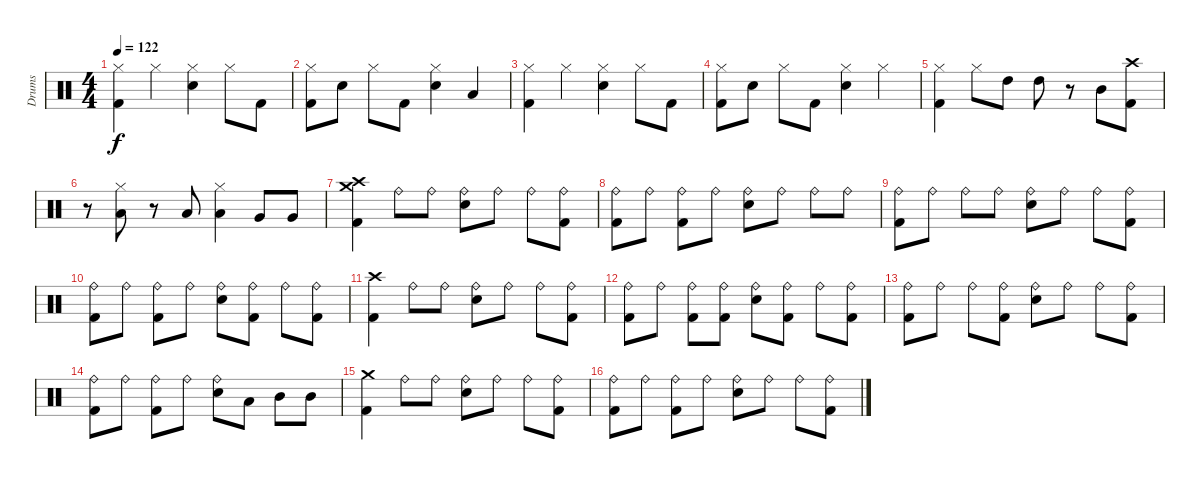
\track ("Drums" "Drums") {instrument percussion}
\staff {score}
\articulation defaults
\ts (4 4)
\tempo 122
\clef neutral
\ks c
("Hi-Hat (closed)" "Kick (hit) 2").4{dy f} "Hi-Hat (closed)".4 ("Hi-Hat (closed)" "Snare (hit) 2").4 "Hi-Hat (closed)".8 "Kick (hit) 2".8 |
("Hi-Hat (closed)" "Kick (hit) 2").8 "Snare (hit) 2".8 "Hi-Hat (closed)".8 "Kick (hit) 2".8 ("Hi-Hat (closed)" "Snare (hit) 2").4 "Low Tom (hit)".4 |
("Hi-Hat (closed)" "Kick (hit) 2").4 "Hi-Hat (closed)".4 ("Hi-Hat (closed)" "Snare (hit) 2").4 "Hi-Hat (closed)".8 "Kick (hit) 2".8 |
("Hi-Hat (closed)" "Kick (hit) 2").8 "Snare (hit) 2".8 "Hi-Hat (closed)".8 "Kick (hit) 2".8 ("Hi-Hat (closed)" "Snare (hit) 2").4 "Hi-Hat (closed)".4 |
("Hi-Hat (closed)" "Kick (hit) 2").4 "Hi-Hat (closed)".8 "High Tom (hit)".8 "High Tom (hit)".8 r.8 "Mid Tom (hit)".8 ("Crash high (hit)" "Kick (hit) 2").8 |
r.8 ("Hi-Hat (closed)" "Low Tom (hit)").8 r.8 "Low Tom (hit)".8 ("Hi-Hat (closed)" "Low Tom (hit)").4 "Very Low Tom (hit)".8 "Very Low Tom (hit)".8 |
("Crash high (hit)" "Crash medium (hit)" "Kick (hit) 2").4 "Ride (bell)".8 "Ride (bell)".8 ("Ride (bell)" "Snare (hit) 2").8 "Ride (bell)".8 "Ride (bell)".8 ("Ride (bell)" "Kick (hit) 2").8 |
("Ride (bell)" "Kick (hit) 2").8 "Ride (bell)".8 ("Ride (bell)" "Kick (hit) 2").8 "Ride (bell)".8 ("Ride (bell)" "Snare (hit) 2").8 "Ride (bell)".8 "Ride (bell)".8 "Ride (bell)".8 |
("Ride (bell)" "Kick (hit) 2").8 "Ride (bell)".8 "Ride (bell)".8 "Ride (bell)".8 ("Ride (bell)" "Snare (hit) 2").8 "Ride (bell)".8 "Ride (bell)".8 ("Ride (bell)" "Kick (hit) 2").8 |
("Ride (bell)" "Kick (hit) 2").8 "Ride (bell)".8 ("Ride (bell)" "Kick (hit) 2").8 "Ride (bell)".8 ("Ride (bell)" "Snare (hit) 2").8 ("Ride (bell)" "Kick (hit) 2").8 "Ride (bell)".8 ("Ride (bell)" "Kick (hit) 2").8 |
("Crash high (hit)" "Kick (hit) 2").4 "Ride (bell)".8 "Ride (bell)".8 ("Ride (bell)" "Snare (hit) 2").8 "Ride (bell)".8 "Ride (bell)".8 ("Ride (bell)" "Kick (hit) 2").8 |
("Ride (bell)" "Kick (hit) 2").8 "Ride (bell)".8 ("Ride (bell)" "Kick (hit) 2").8 ("Ride (bell)" "Kick (hit) 2").8 ("Ride (bell)" "Snare (hit) 2").8 ("Ride (bell)" "Kick (hit) 2").8 "Ride (bell)".8 ("Ride (bell)" "Kick (hit) 2").8 |
("Ride (bell)" "Kick (hit) 2").8 "Ride (bell)".8 "Ride (bell)".8 ("Ride (bell)" "Kick (hit) 2").8 ("Ride (bell)" "Snare (hit) 2").8 "Ride (bell)".8 "Ride (bell)".8 ("Ride (bell)" "Kick (hit) 2").8 |
("Ride (bell)" "Kick (hit) 2").8 "Ride (bell)".8 ("Ride (bell)" "Kick (hit) 2").8 "Ride (bell)".8 ("Ride (bell)" "Snare (hit) 2").8 "Low Tom (hit)".8 "Mid Tom (hit)".8 "Mid Tom (hit)".8 |
("Crash medium (hit)" "Kick (hit) 2").4 "Ride (bell)".8 "Ride (bell)".8 ("Ride (bell)" "Snare (hit) 2").8 "Ride (bell)".8 "Ride (bell)".8 ("Ride (bell)" "Kick (hit) 2").8 |
("Ride (bell)" "Kick (hit) 2").8 "Ride (bell)".8 ("Ride (bell)" "Kick (hit) 2").8 "Ride (bell)".8 ("Ride (bell)" "Snare (hit) 2").8 "Ride (bell)".8 "Ride (bell)".8 ("Ride (bell)" "Kick (hit) 2").8
